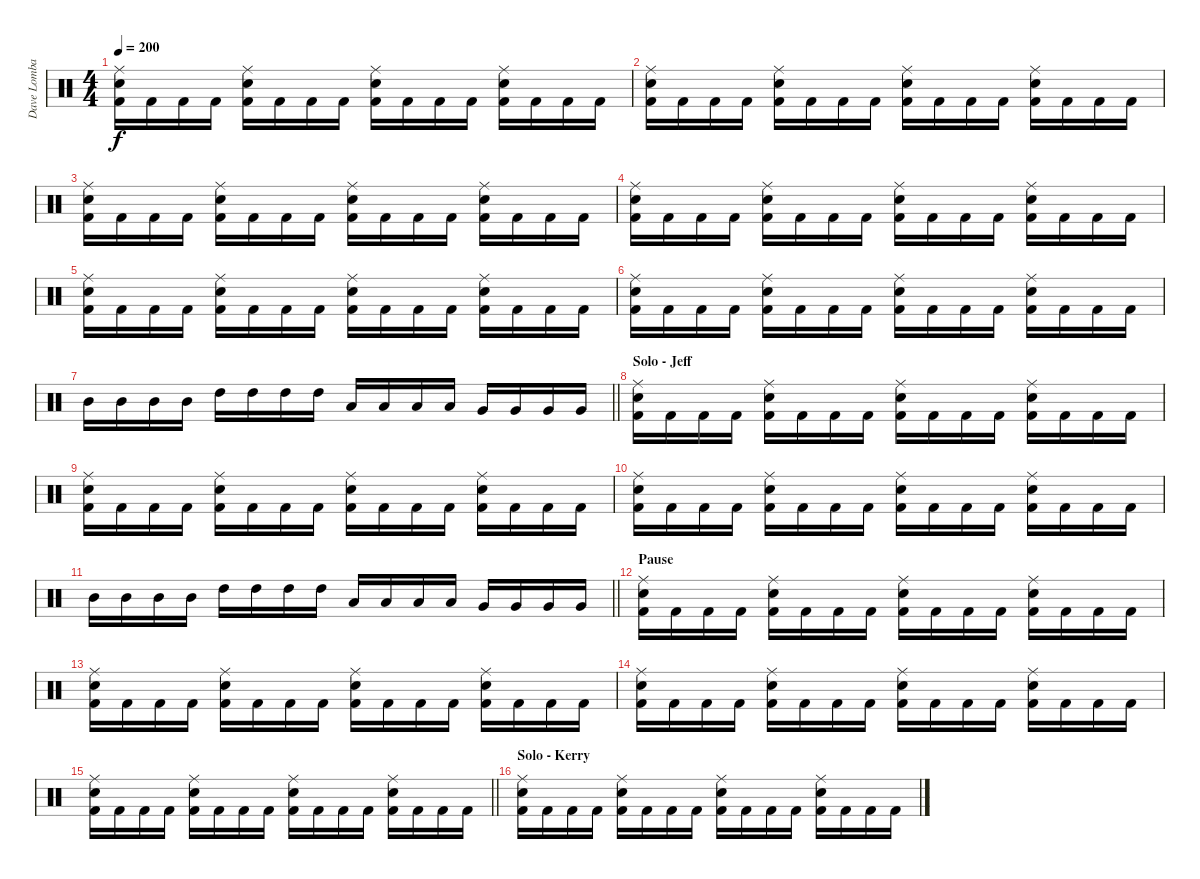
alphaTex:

\track ("Dave Lombardo (Drums)" "Dave Lomba") {instrument percussion}
\staff {score}
\articulation defaults
\ts (4 4)
\tempo 200
\clef neutral
\ks c
("Ride (middle)" "Snare (hit) 2" "Kick (hit) 2").16{dy f} "Kick (hit) 2".16 "Kick (hit) 2".16 "Kick (hit) 2".16 ("Ride (middle)" "Snare (hit) 2" "Kick (hit) 2").16 "Kick (hit) 2".16 "Kick (hit) 2".16 "Kick (hit) 2".16 ("Ride (middle)" "Snare (hit) 2" "Kick (hit) 2").16 "Kick (hit) 2".16 "Kick (hit) 2".16 "Kick (hit) 2".16 ("Ride (middle)" "Snare (hit) 2" "Kick (hit) 2").16 "Kick (hit) 2".16 "Kick (hit) 2".16 "Kick (hit) 2".16 |
("Ride (middle)" "Snare (hit) 2" "Kick (hit) 2").16 "Kick (hit) 2".16 "Kick (hit) 2".16 "Kick (hit) 2".16 ("Ride (middle)" "Snare (hit) 2" "Kick (hit) 2").16 "Kick (hit) 2".16 "Kick (hit) 2".16 "Kick (hit) 2".16 ("Ride (middle)" "Snare (hit) 2" "Kick (hit) 2").16 "Kick (hit) 2".16 "Kick (hit) 2".16 "Kick (hit) 2".16 ("Ride (middle)" "Snare (hit) 2" "Kick (hit) 2").16 "Kick (hit) 2".16 "Kick (hit) 2".16 "Kick (hit) 2".16 |
("Ride (middle)" "Snare (hit) 2" "Kick (hit) 2").16 "Kick (hit) 2".16 "Kick (hit) 2".16 "Kick (hit) 2".16 ("Ride (middle)" "Snare (hit) 2" "Kick (hit) 2").16 "Kick (hit) 2".16 "Kick (hit) 2".16 "Kick (hit) 2".16 ("Ride (middle)" "Snare (hit) 2" "Kick (hit) 2").16 "Kick (hit) 2".16 "Kick (hit) 2".16 "Kick (hit) 2".16 ("Ride (middle)" "Snare (hit) 2" "Kick (hit) 2").16 "Kick (hit) 2".16 "Kick (hit) 2".16 "Kick (hit) 2".16 |
("Ride (middle)" "Snare (hit) 2" "Kick (hit) 2").16 "Kick (hit) 2".16 "Kick (hit) 2".16 "Kick (hit) 2".16 ("Ride (middle)" "Snare (hit) 2" "Kick (hit) 2").16 "Kick (hit) 2".16 "Kick (hit) 2".16 "Kick (hit) 2".16 ("Ride (middle)" "Snare (hit) 2" "Kick (hit) 2").16 "Kick (hit) 2".16 "Kick (hit) 2".16 "Kick (hit) 2".16 ("Ride (middle)" "Snare (hit) 2" "Kick (hit) 2").16 "Kick (hit) 2".16 "Kick (hit) 2".16 "Kick (hit) 2".16 |
("Ride (middle)" "Snare (hit) 2" "Kick (hit) 2").16 "Kick (hit) 2".16 "Kick (hit) 2".16 "Kick (hit) 2".16 ("Ride (middle)" "Snare (hit) 2" "Kick (hit) 2").16 "Kick (hit) 2".16 "Kick (hit) 2".16 "Kick (hit) 2".16 ("Ride (middle)" "Snare (hit) 2" "Kick (hit) 2").16 "Kick (hit) 2".16 "Kick (hit) 2".16 "Kick (hit) 2".16 ("Ride (middle)" "Snare (hit) 2" "Kick (hit) 2").16 "Kick (hit) 2".16 "Kick (hit) 2".16 "Kick (hit) 2".16 |
("Ride (middle)" "Snare (hit) 2" "Kick (hit) 2").16 "Kick (hit) 2".16 "Kick (hit) 2".16 "Kick (hit) 2".16 ("Ride (middle)" "Snare (hit) 2" "Kick (hit) 2").16 "Kick (hit) 2".16 "Kick (hit) 2".16 "Kick (hit) 2".16 ("Ride (middle)" "Snare (hit) 2" "Kick (hit) 2").16 "Kick (hit) 2".16 "Kick (hit) 2".16 "Kick (hit) 2".16 ("Ride (middle)" "Snare (hit) 2" "Kick (hit) 2").16 "Kick (hit) 2".16 "Kick (hit) 2".16 "Kick (hit) 2".16 |
\barLineRight lightlight "Mid Tom (hit)".16 "Mid Tom (hit)".16 "Mid Tom (hit)".16 "Mid Tom (hit)".16 "High Tom (hit)".16 "High Tom (hit)".16 "High Tom (hit)".16 "High Tom (hit)".16 "Low Tom (hit)".16 "Low Tom (hit)".16 "Low Tom (hit)".16 "Low Tom (hit)".16 "Very Low Tom (hit)".16 "Very Low Tom (hit)".16 "Very Low Tom (hit)".16 "Very Low Tom (hit)".16
|
\section ("" "Solo - Jeff")
("Ride (middle)" "Snare (hit) 2" "Kick (hit) 2").16 "Kick (hit) 2".16 "Kick (hit) 2".16 "Kick (hit) 2".16 ("Ride (middle)" "Snare (hit) 2" "Kick (hit) 2").16 "Kick (hit) 2".16 "Kick (hit) 2".16 "Kick (hit) 2".16 ("Ride (middle)" "Snare (hit) 2" "Kick (hit) 2").16 "Kick (hit) 2".16 "Kick (hit) 2".16 "Kick (hit) 2".16 ("Ride (middle)" "Snare (hit) 2" "Kick (hit) 2").16 "Kick (hit) 2".16 "Kick (hit) 2".16 "Kick (hit) 2".16 |
("Ride (middle)" "Snare (hit) 2" "Kick (hit) 2").16 "Kick (hit) 2".16 "Kick (hit) 2".16 "Kick (hit) 2".16 ("Ride (middle)" "Snare (hit) 2" "Kick (hit) 2").16 "Kick (hit) 2".16 "Kick (hit) 2".16 "Kick (hit) 2".16 ("Ride (middle)" "Snare (hit) 2" "Kick (hit) 2").16 "Kick (hit) 2".16 "Kick (hit) 2".16 "Kick (hit) 2".16 ("Ride (middle)" "Snare (hit) 2" "Kick (hit) 2").16 "Kick (hit) 2".16 "Kick (hit) 2".16 "Kick (hit) 2".16 |
("Ride (middle)" "Snare (hit) 2" "Kick (hit) 2").16 "Kick (hit) 2".16 "Kick (hit) 2".16 "Kick (hit) 2".16 ("Ride (middle)" "Snare (hit) 2" "Kick (hit) 2").16 "Kick (hit) 2".16 "Kick (hit) 2".16 "Kick (hit) 2".16 ("Ride (middle)" "Snare (hit) 2" "Kick (hit) 2").16 "Kick (hit) 2".16 "Kick (hit) 2".16 "Kick (hit) 2".16 ("Ride (middle)" "Snare (hit) 2" "Kick (hit) 2").16 "Kick (hit) 2".16 "Kick (hit) 2".16 "Kick (hit) 2".16 |
\barLineRight lightlight "Mid Tom (hit)".16 "Mid Tom (hit)".16 "Mid Tom (hit)".16 "Mid Tom (hit)".16 "High Tom (hit)".16 "High Tom (hit)".16 "High Tom (hit)".16 "High Tom (hit)".16 "Low Tom (hit)".16 "Low Tom (hit)".16 "Low Tom (hit)".16 "Low Tom (hit)".16 "Very Low Tom (hit)".16 "Very Low Tom (hit)".16 "Very Low Tom (hit)".16 "Very Low Tom (hit)".16
|
\section ("" "Pause")
("Ride (middle)" "Snare (hit) 2" "Kick (hit) 2").16 "Kick (hit) 2".16 "Kick (hit) 2".16 "Kick (hit) 2".16 ("Ride (middle)" "Snare (hit) 2" "Kick (hit) 2").16 "Kick (hit) 2".16 "Kick (hit) 2".16 "Kick (hit) 2".16 ("Ride (middle)" "Snare (hit) 2" "Kick (hit) 2").16 "Kick (hit) 2".16 "Kick (hit) 2".16 "Kick (hit) 2".16 ("Ride (middle)" "Snare (hit) 2" "Kick (hit) 2").16 "Kick (hit) 2".16 "Kick (hit) 2".16 "Kick (hit) 2".16 |
("Ride (middle)" "Snare (hit) 2" "Kick (hit) 2").16 "Kick (hit) 2".16 "Kick (hit) 2".16 "Kick (hit) 2".16 ("Ride (middle)" "Snare (hit) 2" "Kick (hit) 2").16 "Kick (hit) 2".16 "Kick (hit) 2".16 "Kick (hit) 2".16 ("Ride (middle)" "Snare (hit) 2" "Kick (hit) 2").16 "Kick (hit) 2".16 "Kick (hit) 2".16 "Kick (hit) 2".16 ("Ride (middle)" "Snare (hit) 2" "Kick (hit) 2").16 "Kick (hit) 2".16 "Kick (hit) 2".16 "Kick (hit) 2".16 |
("Ride (middle)" "Snare (hit) 2" "Kick (hit) 2").16 "Kick (hit) 2".16 "Kick (hit) 2".16 "Kick (hit) 2".16 ("Ride (middle)" "Snare (hit) 2" "Kick (hit) 2").16 "Kick (hit) 2".16 "Kick (hit) 2".16 "Kick (hit) 2".16 ("Ride (middle)" "Snare (hit) 2" "Kick (hit) 2").16 "Kick (hit) 2".16 "Kick (hit) 2".16 "Kick (hit) 2".16 ("Ride (middle)" "Snare (hit) 2" "Kick (hit) 2").16 "Kick (hit) 2".16 "Kick (hit) 2".16 "Kick (hit) 2".16 |
\barLineRight lightlight
("Ride (middle)" "Snare (hit) 2" "Kick (hit) 2").16 "Kick (hit) 2".16 "Kick (hit) 2".16 "Kick (hit) 2".16 ("Ride (middle)" "Snare (hit) 2" "Kick (hit) 2").16 "Kick (hit) 2".16 "Kick (hit) 2".16 "Kick (hit) 2".16 ("Ride (middle)" "Snare (hit) 2" "Kick (hit) 2").16 "Kick (hit) 2".16 "Kick (hit) 2".16 "Kick (hit) 2".16 ("Ride (middle)" "Snare (hit) 2" "Kick (hit) 2").16 "Kick (hit) 2".16 "Kick (hit) 2".16 "Kick (hit) 2".16 |
\section ("" "Solo - Kerry")
("Ride (middle)" "Snare (hit) 2" "Kick (hit) 2").16 "Kick (hit) 2".16 "Kick (hit) 2".16 "Kick (hit) 2".16 ("Ride (middle)" "Snare (hit) 2" "Kick (hit) 2").16 "Kick (hit) 2".16 "Kick (hit) 2".16 "Kick (hit) 2".16 ("Ride (middle)" "Snare (hit) 2" "Kick (hit) 2").16 "Kick (hit) 2".16 "Kick (hit) 2".16 "Kick (hit) 2".16 ("Ride (middle)" "Snare (hit) 2" "Kick (hit) 2").16 "Kick (hit) 2".16 "Kick (hit) 2".16 "Kick (hit) 2".16
